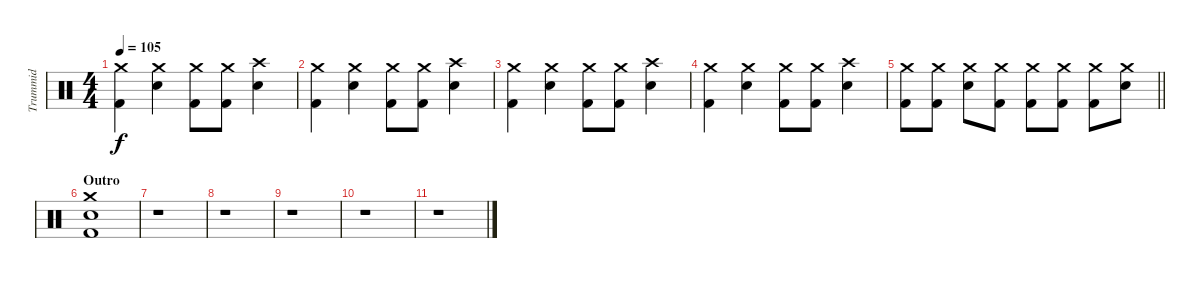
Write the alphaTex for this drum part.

\track ("Trummid" "Trummid") {instrument percussion}
\staff {score}
\articulation defaults
\ts (4 4)
\tempo 105
\clef neutral
\ks c
("Crash medium (hit)" "Kick (hit) 2").4{dy f} ("Crash medium (hit)" "Electric Snare (hit)").4 ("Crash medium (hit)" "Kick (hit) 2").8 ("Crash medium (hit)" "Kick (hit) 2").8 ("Crash high (hit)" "Electric Snare (hit)").4 |
("Crash medium (hit)" "Kick (hit) 2").4 ("Crash medium (hit)" "Electric Snare (hit)").4 ("Crash medium (hit)" "Kick (hit) 2").8 ("Crash medium (hit)" "Kick (hit) 2").8 ("Crash high (hit)" "Electric Snare (hit)").4 |
("Crash medium (hit)" "Kick (hit) 2").4 ("Crash medium (hit)" "Electric Snare (hit)").4 ("Crash medium (hit)" "Kick (hit) 2").8 ("Crash medium (hit)" "Kick (hit) 2").8 ("Crash high (hit)" "Electric Snare (hit)").4 |
("Crash medium (hit)" "Kick (hit) 2").4 ("Crash medium (hit)" "Electric Snare (hit)").4 ("Crash medium (hit)" "Kick (hit) 2").8 ("Crash medium (hit)" "Kick (hit) 2").8 ("Crash high (hit)" "Electric Snare (hit)").4 |
\barLineRight lightlight
("Crash medium (hit)" "Kick (hit) 2").8 ("Crash medium (hit)" "Kick (hit) 2").8 ("Crash medium (hit)" "Electric Snare (hit)").8 ("Crash medium (hit)" "Kick (hit) 2").8 ("Crash medium (hit)" "Kick (hit) 2").8 ("Crash medium (hit)" "Kick (hit) 2").8 ("Crash medium (hit)" "Kick (hit) 2").8 ("Crash medium (hit)" "Electric Snare (hit)").8 |
\section ("" "Outro")
("Crash medium (hit)" "Electric Snare (hit)" "Kick (hit) 2").1 |
r.1 |
r.1 |
r.1 |
r.1 |
r.1
